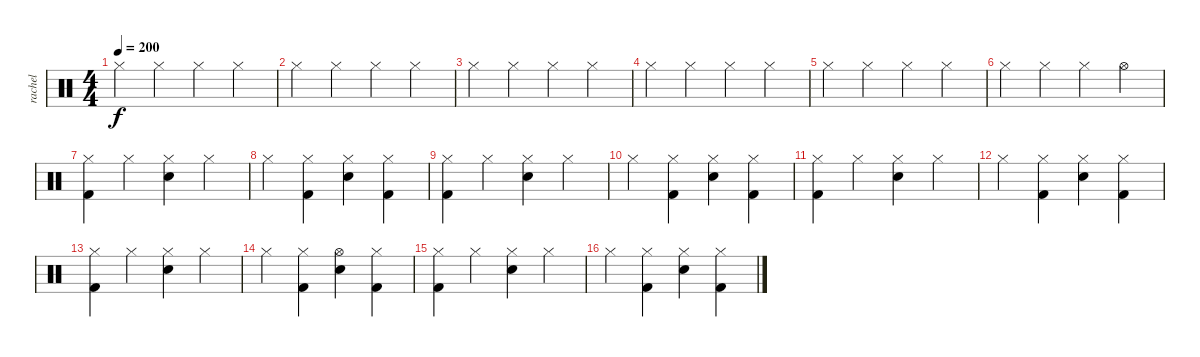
\track ("rachel" "rachel") {instrument percussion}
\staff {score}
\articulation defaults
\ts (4 4)
\tempo 200
\clef neutral
\ks c "Hi-Hat (closed)".4{dy f} "Hi-Hat (closed)".4 "Hi-Hat (closed)".4 "Hi-Hat (closed)".4
|
"Hi-Hat (closed)".4 "Hi-Hat (closed)".4 "Hi-Hat (closed)".4 "Hi-Hat (closed)".4 |
"Hi-Hat (closed)".4 "Hi-Hat (closed)".4 "Hi-Hat (closed)".4 "Hi-Hat (closed)".4 |
"Hi-Hat (closed)".4 "Hi-Hat (closed)".4 "Hi-Hat (closed)".4 "Hi-Hat (closed)".4 |
"Hi-Hat (closed)".4 "Hi-Hat (closed)".4 "Hi-Hat (closed)".4 "Hi-Hat (closed)".4 |
"Hi-Hat (closed)".4 "Hi-Hat (closed)".4 "Hi-Hat (closed)".4 "Hi-Hat (open)".4 |
("Hi-Hat (closed)" "Kick (hit) 2").4 "Hi-Hat (closed)".4 ("Hi-Hat (closed)" "Electric Snare (hit)").4 "Hi-Hat (closed)".4 |
"Hi-Hat (closed)".4 ("Hi-Hat (closed)" "Kick (hit) 2").4 ("Hi-Hat (closed)" "Electric Snare (hit)").4 ("Hi-Hat (closed)" "Kick (hit) 2").4 |
("Hi-Hat (closed)" "Kick (hit) 2").4 "Hi-Hat (closed)".4 ("Hi-Hat (closed)" "Electric Snare (hit)").4 "Hi-Hat (closed)".4 |
"Hi-Hat (closed)".4 ("Hi-Hat (closed)" "Kick (hit) 2").4 ("Hi-Hat (closed)" "Electric Snare (hit)").4 ("Hi-Hat (closed)" "Kick (hit) 2").4 |
("Hi-Hat (closed)" "Kick (hit) 2").4 "Hi-Hat (closed)".4 ("Hi-Hat (closed)" "Electric Snare (hit)").4 "Hi-Hat (closed)".4 |
"Hi-Hat (closed)".4 ("Hi-Hat (closed)" "Kick (hit) 2").4 ("Hi-Hat (closed)" "Electric Snare (hit)").4 ("Hi-Hat (closed)" "Kick (hit) 2").4 |
("Hi-Hat (closed)" "Kick (hit) 2").4 "Hi-Hat (closed)".4 ("Hi-Hat (closed)" "Electric Snare (hit)").4 "Hi-Hat (closed)".4 |
"Hi-Hat (closed)".4 ("Hi-Hat (closed)" "Kick (hit) 2").4 ("Hi-Hat (open)" "Electric Snare (hit)").4 ("Hi-Hat (closed)" "Kick (hit) 2").4 |
("Hi-Hat (closed)" "Kick (hit) 2").4 "Hi-Hat (closed)".4 ("Hi-Hat (closed)" "Electric Snare (hit)").4 "Hi-Hat (closed)".4 |
"Hi-Hat (closed)".4 ("Hi-Hat (closed)" "Kick (hit) 2").4 ("Hi-Hat (closed)" "Electric Snare (hit)").4 ("Hi-Hat (closed)" "Kick (hit) 2").4
